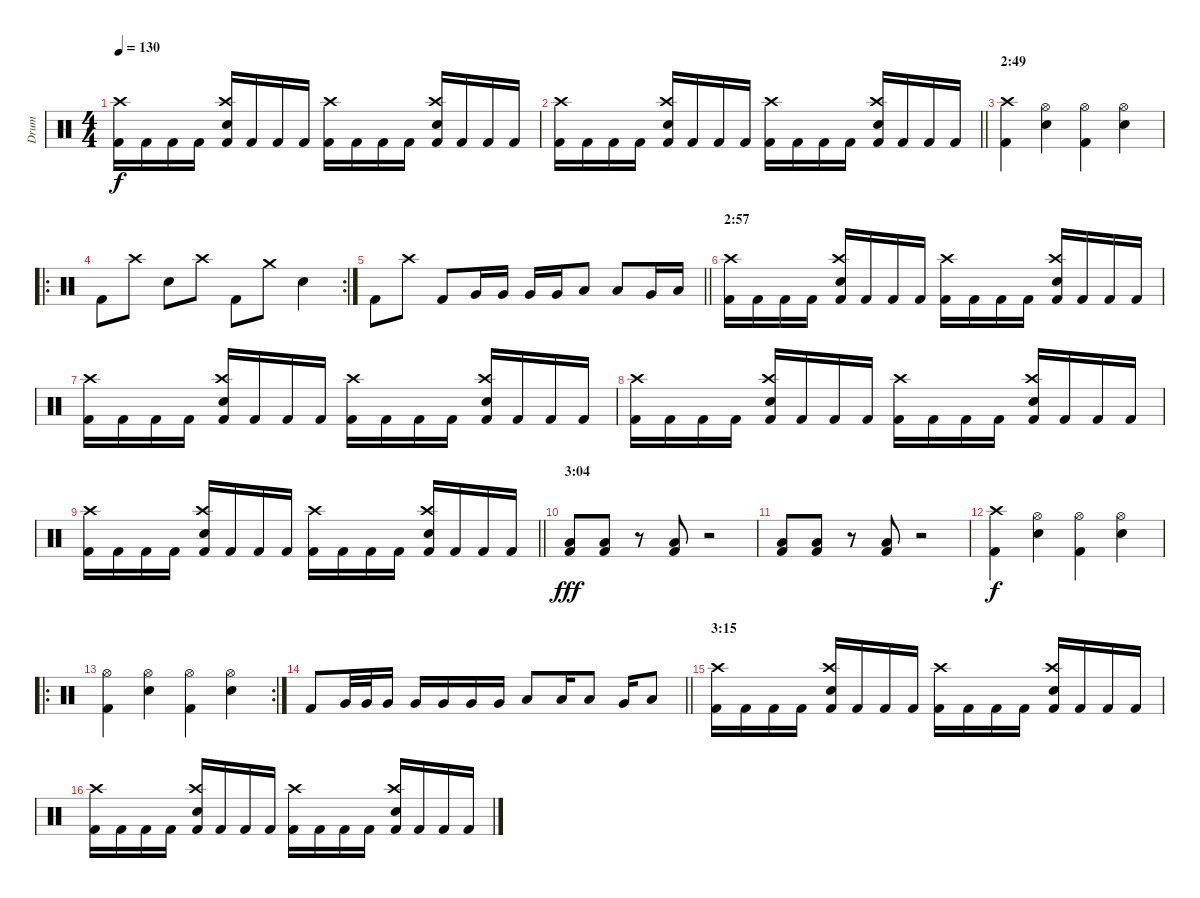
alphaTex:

\track ("Drum" "Drum") {instrument percussion}
\staff {score}
\articulation defaults
\ts (4 4)
\tempo 130
\clef neutral
\ks c
("Kick (hit) 2" "Crash high (hit)").16{dy f} "Kick (hit) 2".16 "Kick (hit) 2".16 "Kick (hit) 2".16 ("Kick (hit) 2" "Electric Snare (hit)" "Crash high (hit)").16 "Kick (hit) 2".16 "Kick (hit) 2".16 "Kick (hit) 2".16 ("Kick (hit) 2" "Crash high (hit)").16 "Kick (hit) 2".16 "Kick (hit) 2".16 "Kick (hit) 2".16 ("Kick (hit) 2" "Electric Snare (hit)" "Crash high (hit)").16 "Kick (hit) 2".16 "Kick (hit) 2".16 "Kick (hit) 2".16 |
\barLineRight lightlight
("Kick (hit) 2" "Crash high (hit)").16 "Kick (hit) 2".16 "Kick (hit) 2".16 "Kick (hit) 2".16 ("Kick (hit) 2" "Electric Snare (hit)" "Crash high (hit)").16 "Kick (hit) 2".16 "Kick (hit) 2".16 "Kick (hit) 2".16 ("Kick (hit) 2" "Crash high (hit)").16 "Kick (hit) 2".16 "Kick (hit) 2".16 "Kick (hit) 2".16 ("Kick (hit) 2" "Electric Snare (hit)" "Crash high (hit)").16 "Kick (hit) 2".16 "Kick (hit) 2".16 "Kick (hit) 2".16 |
\section ("" "2:49")
("Kick (hit) 2" "Crash high (hit)").4 ("Electric Snare (hit)" "Hi-Hat (open)").4 ("Kick (hit) 2" "Hi-Hat (open)").4 ("Electric Snare (hit)" "Hi-Hat (open)").4 |
\ro
\rc 2 "Kick (hit) 2".8 "Crash high (hit)".8 "Electric Snare (hit)".8 "Crash high (hit)".8 "Kick (hit) 2".8 "Crash medium (hit)".8 "Electric Snare (hit)".4
|
\barLineRight lightlight "Kick (hit) 2".8 "Crash high (hit)".8 "Kick (hit) 2".8 "Very Low Tom (hit)".16 "Very Low Tom (hit)".16 "Very Low Tom (hit)".16 "Very Low Tom (hit)".16 "Low Tom (hit)".8 "Low Tom (hit)".8 "Very Low Tom (hit)".16 "Low Floor Tom (hit)".16
|
\section ("" "2:57")
("Kick (hit) 2" "Crash high (hit)").16 "Kick (hit) 2".16 "Kick (hit) 2".16 "Kick (hit) 2".16 ("Kick (hit) 2" "Electric Snare (hit)" "Crash high (hit)").16 "Kick (hit) 2".16 "Kick (hit) 2".16 "Kick (hit) 2".16 ("Kick (hit) 2" "Crash high (hit)").16 "Kick (hit) 2".16 "Kick (hit) 2".16 "Kick (hit) 2".16 ("Kick (hit) 2" "Electric Snare (hit)" "Crash high (hit)").16 "Kick (hit) 2".16 "Kick (hit) 2".16 "Kick (hit) 2".16 |
("Kick (hit) 2" "Crash high (hit)").16 "Kick (hit) 2".16 "Kick (hit) 2".16 "Kick (hit) 2".16 ("Kick (hit) 2" "Electric Snare (hit)" "Crash high (hit)").16 "Kick (hit) 2".16 "Kick (hit) 2".16 "Kick (hit) 2".16 ("Kick (hit) 2" "Crash high (hit)").16 "Kick (hit) 2".16 "Kick (hit) 2".16 "Kick (hit) 2".16 ("Kick (hit) 2" "Electric Snare (hit)" "Crash high (hit)").16 "Kick (hit) 2".16 "Kick (hit) 2".16 "Kick (hit) 2".16 |
("Kick (hit) 2" "Crash high (hit)").16 "Kick (hit) 2".16 "Kick (hit) 2".16 "Kick (hit) 2".16 ("Kick (hit) 2" "Electric Snare (hit)" "Crash high (hit)").16 "Kick (hit) 2".16 "Kick (hit) 2".16 "Kick (hit) 2".16 ("Kick (hit) 2" "Crash high (hit)").16 "Kick (hit) 2".16 "Kick (hit) 2".16 "Kick (hit) 2".16 ("Kick (hit) 2" "Electric Snare (hit)" "Crash high (hit)").16 "Kick (hit) 2".16 "Kick (hit) 2".16 "Kick (hit) 2".16 |
\barLineRight lightlight
("Kick (hit) 2" "Crash high (hit)").16 "Kick (hit) 2".16 "Kick (hit) 2".16 "Kick (hit) 2".16 ("Kick (hit) 2" "Electric Snare (hit)" "Crash high (hit)").16 "Kick (hit) 2".16 "Kick (hit) 2".16 "Kick (hit) 2".16 ("Kick (hit) 2" "Crash high (hit)").16 "Kick (hit) 2".16 "Kick (hit) 2".16 "Kick (hit) 2".16 ("Kick (hit) 2" "Electric Snare (hit)" "Crash high (hit)").16 "Kick (hit) 2".16 "Kick (hit) 2".16 "Kick (hit) 2".16 |
\section ("" "3:04")
("Kick (hit) 2" "Low Floor Tom (hit)").8{dy fff} ("Kick (hit) 2" "Low Floor Tom (hit)").8 r.8 ("Kick (hit) 2" "Low Floor Tom (hit)").8 r.2 |
("Kick (hit) 2" "Low Floor Tom (hit)").8 ("Kick (hit) 2" "Low Floor Tom (hit)").8 r.8 ("Kick (hit) 2" "Low Floor Tom (hit)").8 r.2 |
("Kick (hit) 2" "Crash high (hit)").4{dy f} ("Electric Snare (hit)" "Hi-Hat (open)").4 ("Kick (hit) 2" "Hi-Hat (open)").4 ("Electric Snare (hit)" "Hi-Hat (open)").4 |
\ro
\rc 2
("Kick (hit) 2" "Hi-Hat (open)").4 ("Electric Snare (hit)" "Hi-Hat (open)").4 ("Kick (hit) 2" "Hi-Hat (open)").4 ("Electric Snare (hit)" "Hi-Hat (open)").4 |
\barLineRight lightlight "Kick (hit) 2".8 "Very Low Tom (hit)".32 "Very Low Tom (hit)".32 "Very Low Tom (hit)".16 "Very Low Tom (hit)".16 "Very Low Tom (hit)".16 "Very Low Tom (hit)".16 "Very Low Tom (hit)".16 "Low Tom (hit)".8 "Low Tom (hit)".16 "Low Tom (hit)".8 "Very Low Tom (hit)".16 "Low Floor Tom (hit)".8
|
\section ("" "3:15")
("Kick (hit) 2" "Crash high (hit)").16 "Kick (hit) 2".16 "Kick (hit) 2".16 "Kick (hit) 2".16 ("Kick (hit) 2" "Electric Snare (hit)" "Crash high (hit)").16 "Kick (hit) 2".16 "Kick (hit) 2".16 "Kick (hit) 2".16 ("Kick (hit) 2" "Crash high (hit)").16 "Kick (hit) 2".16 "Kick (hit) 2".16 "Kick (hit) 2".16 ("Kick (hit) 2" "Electric Snare (hit)" "Crash high (hit)").16 "Kick (hit) 2".16 "Kick (hit) 2".16 "Kick (hit) 2".16 |
("Kick (hit) 2" "Crash high (hit)").16 "Kick (hit) 2".16 "Kick (hit) 2".16 "Kick (hit) 2".16 ("Kick (hit) 2" "Electric Snare (hit)" "Crash high (hit)").16 "Kick (hit) 2".16 "Kick (hit) 2".16 "Kick (hit) 2".16 ("Kick (hit) 2" "Crash high (hit)").16 "Kick (hit) 2".16 "Kick (hit) 2".16 "Kick (hit) 2".16 ("Kick (hit) 2" "Electric Snare (hit)" "Crash high (hit)").16 "Kick (hit) 2".16 "Kick (hit) 2".16 "Kick (hit) 2".16
